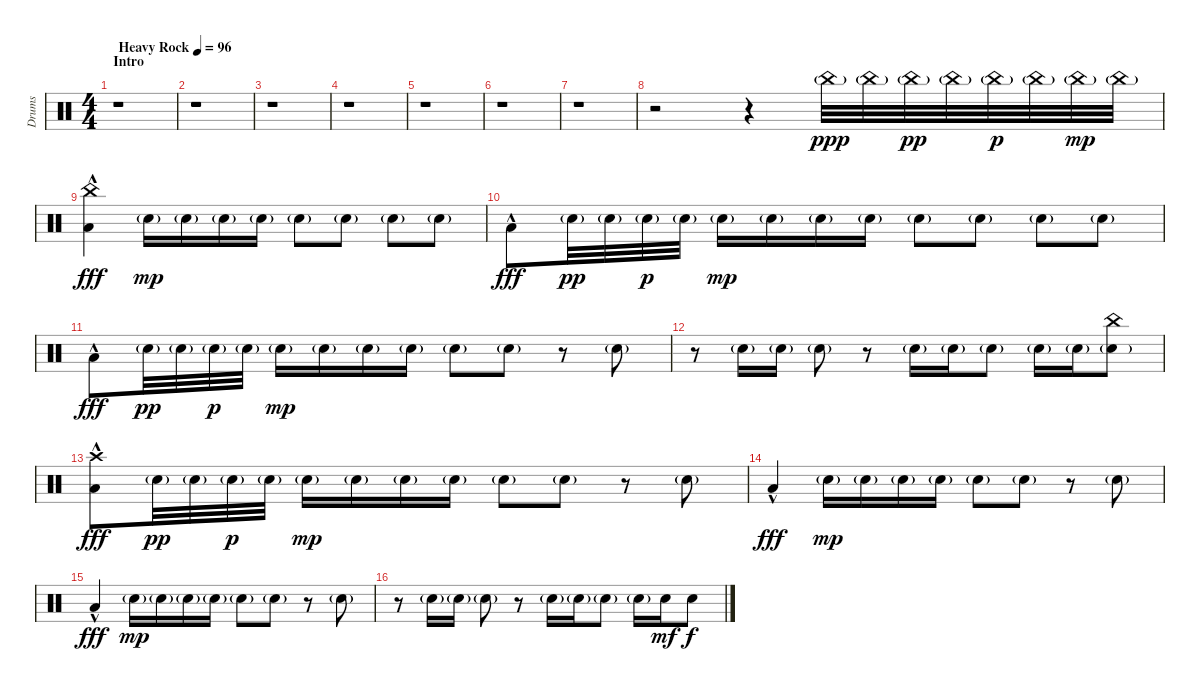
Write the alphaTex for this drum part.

\track ("Drums" "Drums") {instrument percussion}
\staff {score}
\articulation defaults
\ts (4 4)
\section ("" "Intro")
\tempo (96 "Heavy Rock")
\clef neutral
\ks c
r.1{dy ppp} |
r.1 |
r.1 |
r.1 |
r.1 |
r.1 |
r.1 |
r.2 r.4 "China (hit)"{g}.32 "China (hit)"{g}.32 "China (hit)"{g}.32{dy pp} "China (hit)"{g}.32 "China (hit)"{g}.32{dy p} "China (hit)"{g}.32 "China (hit)"{g}.32{dy mp} "China (hit)"{g}.32 |
("China (hit)" "Low Floor Tom (hit)"{hac}).4{dy fff} "Snare (hit) 2"{g}.16{dy mp} "Snare (hit) 2"{g}.16 "Snare (hit) 2"{g}.16 "Snare (hit) 2"{g}.16 "Snare (hit) 2"{g}.8 "Snare (hit) 2"{g}.8 "Snare (hit) 2"{g}.8 "Snare (hit) 2"{g}.8 |
"Low Floor Tom (hit)"{hac}.8{dy fff} "Snare (hit) 2"{g}.32{dy pp} "Snare (hit) 2"{g}.32 "Snare (hit) 2"{g}.32{dy p} "Snare (hit) 2"{g}.32 "Snare (hit) 2"{g}.16{dy mp} "Snare (hit) 2"{g}.16 "Snare (hit) 2"{g}.16 "Snare (hit) 2"{g}.16 "Snare (hit) 2"{g}.8 "Snare (hit) 2"{g}.8 "Snare (hit) 2"{g}.8 "Snare (hit) 2"{g}.8 |
"Low Floor Tom (hit)"{hac}.8{dy fff} "Snare (hit) 2"{g}.32{dy pp} "Snare (hit) 2"{g}.32 "Snare (hit) 2"{g}.32{dy p} "Snare (hit) 2"{g}.32 "Snare (hit) 2"{g}.16{dy mp} "Snare (hit) 2"{g}.16 "Snare (hit) 2"{g}.16 "Snare (hit) 2"{g}.16 "Snare (hit) 2"{g}.8 "Snare (hit) 2"{g}.8 r.8 "Snare (hit) 2"{g}.8 |
r.8 "Snare (hit) 2"{g}.16 "Snare (hit) 2"{g}.16 "Snare (hit) 2"{g}.8 r.8 "Snare (hit) 2"{g}.16 "Snare (hit) 2"{g}.16 "Snare (hit) 2"{g}.8 "Snare (hit) 2"{g}.16 "Snare (hit) 2"{g}.16 ("China (hit)" "Snare (hit) 2"{g}).8 |
("Crash high (hit)" "Low Floor Tom (hit)"{hac}).8{dy fff volume 10} "Snare (hit) 2"{g}.32{dy pp} "Snare (hit) 2"{g}.32 "Snare (hit) 2"{g}.32{dy p} "Snare (hit) 2"{g}.32 "Snare (hit) 2"{g}.16{dy mp} "Snare (hit) 2"{g}.16 "Snare (hit) 2"{g}.16 "Snare (hit) 2"{g}.16 "Snare (hit) 2"{g}.8 "Snare (hit) 2"{g}.8 r.8 "Snare (hit) 2"{g}.8 |
"Low Floor Tom (hit)"{hac}.4{dy fff} "Snare (hit) 2"{g}.16{dy mp} "Snare (hit) 2"{g}.16 "Snare (hit) 2"{g}.16 "Snare (hit) 2"{g}.16 "Snare (hit) 2"{g}.8 "Snare (hit) 2"{g}.8 r.8 "Snare (hit) 2"{g}.8 |
"Low Floor Tom (hit)"{hac}.4{dy fff} "Snare (hit) 2"{g}.16{dy mp} "Snare (hit) 2"{g}.16 "Snare (hit) 2"{g}.16 "Snare (hit) 2"{g}.16 "Snare (hit) 2"{g}.8 "Snare (hit) 2"{g}.8 r.8 "Snare (hit) 2"{g}.8 |
r.8 "Snare (hit) 2"{g}.16 "Snare (hit) 2"{g}.16 "Snare (hit) 2"{g}.8 r.8 "Snare (hit) 2"{g}.16 "Snare (hit) 2"{g}.16 "Snare (hit) 2"{g}.8 "Snare (hit) 2"{g}.16 "Snare (hit) 2".16{dy mf} "Snare (hit) 2".8{dy f}
